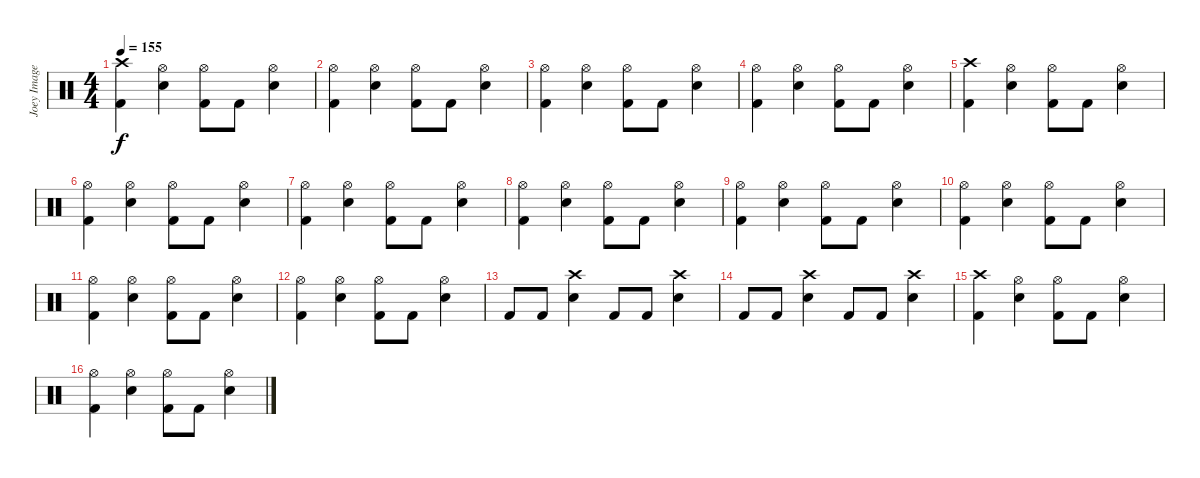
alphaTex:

\track ("Joey Image" "Joey Image") {instrument percussion}
\staff {score}
\articulation defaults
\ts (4 4)
\tempo 155
\clef neutral
\ks c
("Crash high (hit)" "Kick (hit) 2").4{dy f} ("Hi-Hat (open)" "Snare (hit) 2").4 ("Hi-Hat (open)" "Kick (hit) 2").8 "Kick (hit) 2".8 ("Hi-Hat (open)" "Snare (hit) 2").4 |
("Hi-Hat (open)" "Kick (hit) 2").4 ("Hi-Hat (open)" "Snare (hit) 2").4 ("Hi-Hat (open)" "Kick (hit) 2").8 "Kick (hit) 2".8 ("Hi-Hat (open)" "Snare (hit) 2").4 |
("Hi-Hat (open)" "Kick (hit) 2").4 ("Hi-Hat (open)" "Snare (hit) 2").4 ("Hi-Hat (open)" "Kick (hit) 2").8 "Kick (hit) 2".8 ("Hi-Hat (open)" "Snare (hit) 2").4 |
("Hi-Hat (open)" "Kick (hit) 2").4 ("Hi-Hat (open)" "Snare (hit) 2").4 ("Hi-Hat (open)" "Kick (hit) 2").8 "Kick (hit) 2".8 ("Hi-Hat (open)" "Snare (hit) 2").4 |
("Crash high (hit)" "Kick (hit) 2").4 ("Hi-Hat (open)" "Snare (hit) 2").4 ("Hi-Hat (open)" "Kick (hit) 2").8 "Kick (hit) 2".8 ("Hi-Hat (open)" "Snare (hit) 2").4 |
("Hi-Hat (open)" "Kick (hit) 2").4 ("Hi-Hat (open)" "Snare (hit) 2").4 ("Hi-Hat (open)" "Kick (hit) 2").8 "Kick (hit) 2".8 ("Hi-Hat (open)" "Snare (hit) 2").4 |
("Hi-Hat (open)" "Kick (hit) 2").4 ("Hi-Hat (open)" "Snare (hit) 2").4 ("Hi-Hat (open)" "Kick (hit) 2").8 "Kick (hit) 2".8 ("Hi-Hat (open)" "Snare (hit) 2").4 |
("Hi-Hat (open)" "Kick (hit) 2").4 ("Hi-Hat (open)" "Snare (hit) 2").4 ("Hi-Hat (open)" "Kick (hit) 2").8 "Kick (hit) 2".8 ("Hi-Hat (open)" "Snare (hit) 2").4 |
("Hi-Hat (open)" "Kick (hit) 2").4 ("Hi-Hat (open)" "Snare (hit) 2").4 ("Hi-Hat (open)" "Kick (hit) 2").8 "Kick (hit) 2".8 ("Hi-Hat (open)" "Snare (hit) 2").4 |
("Hi-Hat (open)" "Kick (hit) 2").4 ("Hi-Hat (open)" "Snare (hit) 2").4 ("Hi-Hat (open)" "Kick (hit) 2").8 "Kick (hit) 2".8 ("Hi-Hat (open)" "Snare (hit) 2").4 |
("Hi-Hat (open)" "Kick (hit) 2").4 ("Hi-Hat (open)" "Snare (hit) 2").4 ("Hi-Hat (open)" "Kick (hit) 2").8 "Kick (hit) 2".8 ("Hi-Hat (open)" "Snare (hit) 2").4 |
("Hi-Hat (open)" "Kick (hit) 2").4 ("Hi-Hat (open)" "Snare (hit) 2").4 ("Hi-Hat (open)" "Kick (hit) 2").8 "Kick (hit) 2".8 ("Hi-Hat (open)" "Snare (hit) 2").4 |
"Kick (hit) 2".8 "Kick (hit) 2".8 ("Crash high (hit)" "Snare (hit) 2").4 "Kick (hit) 2".8 "Kick (hit) 2".8 ("Crash high (hit)" "Snare (hit) 2").4 |
"Kick (hit) 2".8 "Kick (hit) 2".8 ("Crash high (hit)" "Snare (hit) 2").4 "Kick (hit) 2".8 "Kick (hit) 2".8 ("Crash high (hit)" "Snare (hit) 2").4 |
("Crash high (hit)" "Kick (hit) 2").4 ("Hi-Hat (open)" "Snare (hit) 2").4 ("Hi-Hat (open)" "Kick (hit) 2").8 "Kick (hit) 2".8 ("Hi-Hat (open)" "Snare (hit) 2").4 |
("Hi-Hat (open)" "Kick (hit) 2").4 ("Hi-Hat (open)" "Snare (hit) 2").4 ("Hi-Hat (open)" "Kick (hit) 2").8 "Kick (hit) 2".8 ("Hi-Hat (open)" "Snare (hit) 2").4
